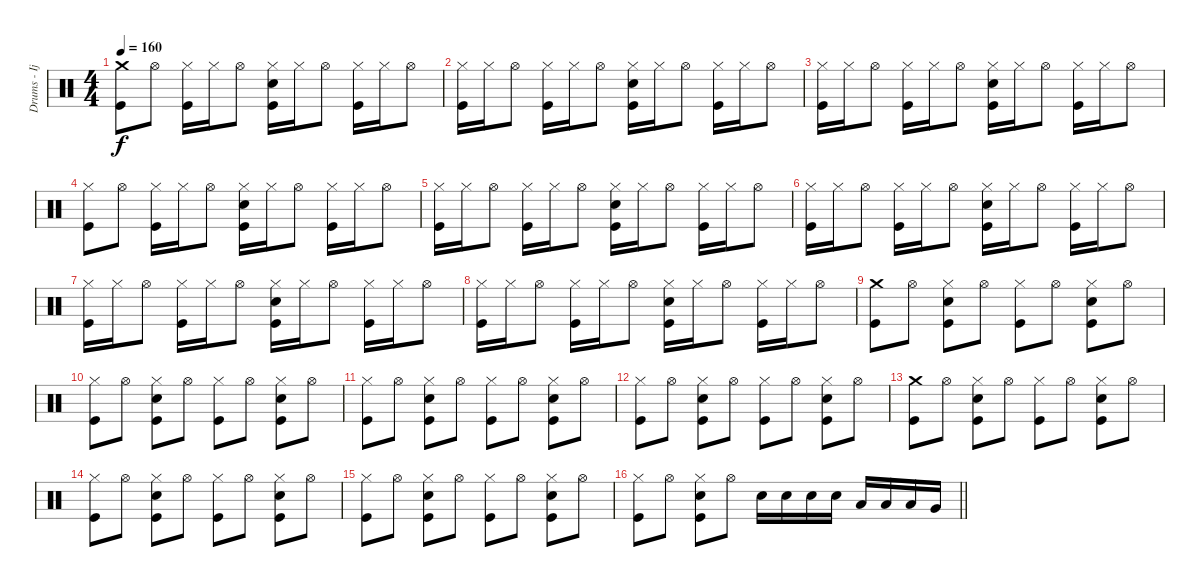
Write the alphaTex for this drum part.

\track ("Drums - Ijichi" "Drums - Ij") {instrument percussion}
\staff {score}
\articulation defaults
\ts (4 4)
\tempo 160
\clef neutral
\ks c
("Crash medium (hit)" "Kick (hit)").8{dy f} "Hi-Hat (open)".8 ("Hi-Hat (closed)" "Kick (hit)").16 "Hi-Hat (closed)".16 "Hi-Hat (open)".8 ("Hi-Hat (closed)" "Electric Snare (hit)" "Kick (hit)").16 "Hi-Hat (closed)".16 "Hi-Hat (open)".8 ("Hi-Hat (closed)" "Kick (hit)").16 "Hi-Hat (closed)".16 "Hi-Hat (open)".8 |
("Hi-Hat (closed)" "Kick (hit)").16 "Hi-Hat (closed)".16 "Hi-Hat (open)".8 ("Hi-Hat (closed)" "Kick (hit)").16 "Hi-Hat (closed)".16 "Hi-Hat (open)".8 ("Hi-Hat (closed)" "Electric Snare (hit)" "Kick (hit)").16 "Hi-Hat (closed)".16 "Hi-Hat (open)".8 ("Hi-Hat (closed)" "Kick (hit)").16 "Hi-Hat (closed)".16 "Hi-Hat (open)".8 |
("Hi-Hat (closed)" "Kick (hit)").16 "Hi-Hat (closed)".16 "Hi-Hat (open)".8 ("Hi-Hat (closed)" "Kick (hit)").16 "Hi-Hat (closed)".16 "Hi-Hat (open)".8 ("Hi-Hat (closed)" "Electric Snare (hit)" "Kick (hit)").16 "Hi-Hat (closed)".16 "Hi-Hat (open)".8 ("Hi-Hat (closed)" "Kick (hit)").16 "Hi-Hat (closed)".16 "Hi-Hat (open)".8 |
("Hi-Hat (closed)" "Kick (hit)").8 "Hi-Hat (open)".8 ("Hi-Hat (closed)" "Kick (hit)").16 "Hi-Hat (closed)".16 "Hi-Hat (open)".8 ("Hi-Hat (closed)" "Electric Snare (hit)" "Kick (hit)").16 "Hi-Hat (closed)".16 "Hi-Hat (open)".8 ("Hi-Hat (closed)" "Kick (hit)").16 "Hi-Hat (closed)".16 "Hi-Hat (open)".8 |
("Hi-Hat (closed)" "Kick (hit)").16 "Hi-Hat (closed)".16 "Hi-Hat (open)".8 ("Hi-Hat (closed)" "Kick (hit)").16 "Hi-Hat (closed)".16 "Hi-Hat (open)".8 ("Hi-Hat (closed)" "Electric Snare (hit)" "Kick (hit)").16 "Hi-Hat (closed)".16 "Hi-Hat (open)".8 ("Hi-Hat (closed)" "Kick (hit)").16 "Hi-Hat (closed)".16 "Hi-Hat (open)".8 |
("Hi-Hat (closed)" "Kick (hit)").16 "Hi-Hat (closed)".16 "Hi-Hat (open)".8 ("Hi-Hat (closed)" "Kick (hit)").16 "Hi-Hat (closed)".16 "Hi-Hat (open)".8 ("Hi-Hat (closed)" "Electric Snare (hit)" "Kick (hit)").16 "Hi-Hat (closed)".16 "Hi-Hat (open)".8 ("Hi-Hat (closed)" "Kick (hit)").16 "Hi-Hat (closed)".16 "Hi-Hat (open)".8 |
("Hi-Hat (closed)" "Kick (hit)").16 "Hi-Hat (closed)".16 "Hi-Hat (open)".8 ("Hi-Hat (closed)" "Kick (hit)").16 "Hi-Hat (closed)".16 "Hi-Hat (open)".8 ("Hi-Hat (closed)" "Electric Snare (hit)" "Kick (hit)").16 "Hi-Hat (closed)".16 "Hi-Hat (open)".8 ("Hi-Hat (closed)" "Kick (hit)").16 "Hi-Hat (closed)".16 "Hi-Hat (open)".8 |
("Hi-Hat (closed)" "Kick (hit)").16 "Hi-Hat (closed)".16 "Hi-Hat (open)".8 ("Hi-Hat (closed)" "Kick (hit)").16 "Hi-Hat (closed)".16 "Hi-Hat (open)".8 ("Hi-Hat (closed)" "Electric Snare (hit)" "Kick (hit)").16 "Hi-Hat (closed)".16 "Hi-Hat (open)".8 ("Hi-Hat (closed)" "Kick (hit)").16 "Hi-Hat (closed)".16 "Hi-Hat (open)".8 |
("Crash medium (hit)" "Kick (hit)").8 "Hi-Hat (open)".8 ("Hi-Hat (closed)" "Electric Snare (hit)" "Kick (hit)").8 "Hi-Hat (open)".8 ("Hi-Hat (closed)" "Kick (hit)").8 "Hi-Hat (open)".8 ("Hi-Hat (closed)" "Electric Snare (hit)" "Kick (hit)").8 "Hi-Hat (open)".8 |
("Hi-Hat (closed)" "Kick (hit)").8 "Hi-Hat (open)".8 ("Hi-Hat (closed)" "Electric Snare (hit)" "Kick (hit)").8 "Hi-Hat (open)".8 ("Hi-Hat (closed)" "Kick (hit)").8 "Hi-Hat (open)".8 ("Hi-Hat (closed)" "Electric Snare (hit)" "Kick (hit)").8 "Hi-Hat (open)".8 |
("Hi-Hat (closed)" "Kick (hit)").8 "Hi-Hat (open)".8 ("Hi-Hat (closed)" "Electric Snare (hit)" "Kick (hit)").8 "Hi-Hat (open)".8 ("Hi-Hat (closed)" "Kick (hit)").8 "Hi-Hat (open)".8 ("Hi-Hat (closed)" "Electric Snare (hit)" "Kick (hit)").8 "Hi-Hat (open)".8 |
("Hi-Hat (closed)" "Kick (hit)").8 "Hi-Hat (open)".8 ("Hi-Hat (closed)" "Electric Snare (hit)" "Kick (hit)").8 "Hi-Hat (open)".8 ("Hi-Hat (closed)" "Kick (hit)").8 "Hi-Hat (open)".8 ("Hi-Hat (closed)" "Electric Snare (hit)" "Kick (hit)").8 "Hi-Hat (open)".8 |
("Crash medium (hit)" "Kick (hit)").8 "Hi-Hat (open)".8 ("Hi-Hat (closed)" "Electric Snare (hit)" "Kick (hit)").8 "Hi-Hat (open)".8 ("Hi-Hat (closed)" "Kick (hit)").8 "Hi-Hat (open)".8 ("Hi-Hat (closed)" "Electric Snare (hit)" "Kick (hit)").8 "Hi-Hat (open)".8 |
("Hi-Hat (closed)" "Kick (hit)").8 "Hi-Hat (open)".8 ("Hi-Hat (closed)" "Electric Snare (hit)" "Kick (hit)").8 "Hi-Hat (open)".8 ("Hi-Hat (closed)" "Kick (hit)").8 "Hi-Hat (open)".8 ("Hi-Hat (closed)" "Electric Snare (hit)" "Kick (hit)").8 "Hi-Hat (open)".8 |
("Hi-Hat (closed)" "Kick (hit)").8 "Hi-Hat (open)".8 ("Hi-Hat (closed)" "Electric Snare (hit)" "Kick (hit)").8 "Hi-Hat (open)".8 ("Hi-Hat (closed)" "Kick (hit)").8 "Hi-Hat (open)".8 ("Hi-Hat (closed)" "Electric Snare (hit)" "Kick (hit)").8 "Hi-Hat (open)".8 |
\barLineRight lightlight
("Hi-Hat (closed)" "Kick (hit)").8 "Hi-Hat (open)".8 ("Hi-Hat (closed)" "Electric Snare (hit)" "Kick (hit)").8 "Hi-Hat (open)".8 "Electric Snare (hit)".16 "Electric Snare (hit)".16 "Electric Snare (hit)".16 "Electric Snare (hit)".16 "Low Floor Tom (hit)".16 "Low Floor Tom (hit)".16 "Low Tom (hit)".16 "Very Low Tom (hit)".16
